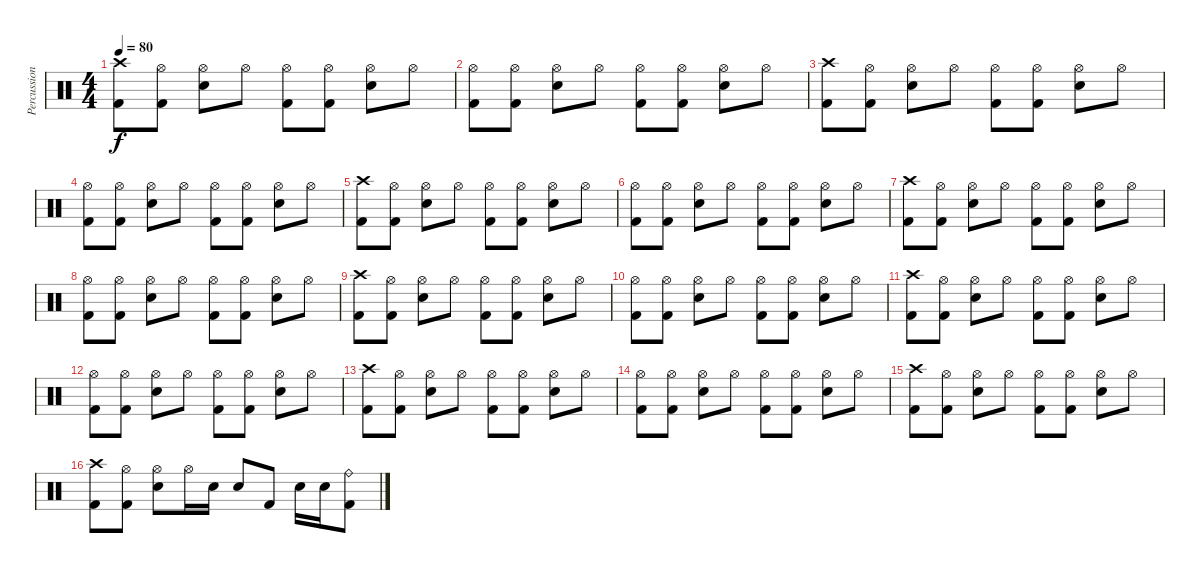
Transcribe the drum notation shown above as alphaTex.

\track ("Percussion" "Percussion") {instrument percussion}
\staff {score}
\articulation defaults
\ts (4 4)
\tempo 80
\clef neutral
\ks c
("Crash high (hit)" "Kick (hit) 2").8{dy f} ("Kick (hit) 2" "Hi-Hat (open)").8 ("Electric Snare (hit)" "Hi-Hat (open)").8 "Hi-Hat (open)".8 ("Hi-Hat (open)" "Kick (hit) 2").8 ("Hi-Hat (open)" "Kick (hit) 2").8 ("Electric Snare (hit)" "Hi-Hat (open)").8 "Hi-Hat (open)".8 |
("Hi-Hat (open)" "Kick (hit) 2").8 ("Kick (hit) 2" "Hi-Hat (open)").8 ("Electric Snare (hit)" "Hi-Hat (open)").8 "Hi-Hat (open)".8 ("Hi-Hat (open)" "Kick (hit) 2").8 ("Hi-Hat (open)" "Kick (hit) 2").8 ("Electric Snare (hit)" "Hi-Hat (open)").8 "Hi-Hat (open)".8 |
("Crash high (hit)" "Kick (hit) 2").8 ("Kick (hit) 2" "Hi-Hat (open)").8 ("Electric Snare (hit)" "Hi-Hat (open)").8 "Hi-Hat (open)".8 ("Hi-Hat (open)" "Kick (hit) 2").8 ("Hi-Hat (open)" "Kick (hit) 2").8 ("Electric Snare (hit)" "Hi-Hat (open)").8 "Hi-Hat (open)".8 |
("Hi-Hat (open)" "Kick (hit) 2").8 ("Kick (hit) 2" "Hi-Hat (open)").8 ("Electric Snare (hit)" "Hi-Hat (open)").8 "Hi-Hat (open)".8 ("Hi-Hat (open)" "Kick (hit) 2").8 ("Hi-Hat (open)" "Kick (hit) 2").8 ("Electric Snare (hit)" "Hi-Hat (open)").8 "Hi-Hat (open)".8 |
("Crash high (hit)" "Kick (hit) 2").8 ("Kick (hit) 2" "Hi-Hat (open)").8 ("Electric Snare (hit)" "Hi-Hat (open)").8 "Hi-Hat (open)".8 ("Hi-Hat (open)" "Kick (hit) 2").8 ("Hi-Hat (open)" "Kick (hit) 2").8 ("Electric Snare (hit)" "Hi-Hat (open)").8 "Hi-Hat (open)".8 |
("Hi-Hat (open)" "Kick (hit) 2").8 ("Kick (hit) 2" "Hi-Hat (open)").8 ("Electric Snare (hit)" "Hi-Hat (open)").8 "Hi-Hat (open)".8 ("Hi-Hat (open)" "Kick (hit) 2").8 ("Hi-Hat (open)" "Kick (hit) 2").8 ("Electric Snare (hit)" "Hi-Hat (open)").8 "Hi-Hat (open)".8 |
("Crash high (hit)" "Kick (hit) 2").8 ("Kick (hit) 2" "Hi-Hat (open)").8 ("Electric Snare (hit)" "Hi-Hat (open)").8 "Hi-Hat (open)".8 ("Hi-Hat (open)" "Kick (hit) 2").8 ("Hi-Hat (open)" "Kick (hit) 2").8 ("Electric Snare (hit)" "Hi-Hat (open)").8 "Hi-Hat (open)".8 |
("Hi-Hat (open)" "Kick (hit) 2").8 ("Kick (hit) 2" "Hi-Hat (open)").8 ("Electric Snare (hit)" "Hi-Hat (open)").8 "Hi-Hat (open)".8 ("Hi-Hat (open)" "Kick (hit) 2").8 ("Hi-Hat (open)" "Kick (hit) 2").8 ("Electric Snare (hit)" "Hi-Hat (open)").8 "Hi-Hat (open)".8 |
("Crash high (hit)" "Kick (hit) 2").8 ("Kick (hit) 2" "Hi-Hat (open)").8 ("Electric Snare (hit)" "Hi-Hat (open)").8 "Hi-Hat (open)".8 ("Hi-Hat (open)" "Kick (hit) 2").8 ("Hi-Hat (open)" "Kick (hit) 2").8 ("Electric Snare (hit)" "Hi-Hat (open)").8 "Hi-Hat (open)".8 |
("Hi-Hat (open)" "Kick (hit) 2").8 ("Kick (hit) 2" "Hi-Hat (open)").8 ("Electric Snare (hit)" "Hi-Hat (open)").8 "Hi-Hat (open)".8 ("Hi-Hat (open)" "Kick (hit) 2").8 ("Hi-Hat (open)" "Kick (hit) 2").8 ("Electric Snare (hit)" "Hi-Hat (open)").8 "Hi-Hat (open)".8 |
("Crash high (hit)" "Kick (hit) 2").8 ("Kick (hit) 2" "Hi-Hat (open)").8 ("Electric Snare (hit)" "Hi-Hat (open)").8 "Hi-Hat (open)".8 ("Hi-Hat (open)" "Kick (hit) 2").8 ("Hi-Hat (open)" "Kick (hit) 2").8 ("Electric Snare (hit)" "Hi-Hat (open)").8 "Hi-Hat (open)".8 |
("Hi-Hat (open)" "Kick (hit) 2").8 ("Kick (hit) 2" "Hi-Hat (open)").8 ("Electric Snare (hit)" "Hi-Hat (open)").8 "Hi-Hat (open)".8 ("Hi-Hat (open)" "Kick (hit) 2").8 ("Hi-Hat (open)" "Kick (hit) 2").8 ("Electric Snare (hit)" "Hi-Hat (open)").8 "Hi-Hat (open)".8 |
("Crash high (hit)" "Kick (hit) 2").8 ("Kick (hit) 2" "Hi-Hat (open)").8 ("Electric Snare (hit)" "Hi-Hat (open)").8 "Hi-Hat (open)".8 ("Hi-Hat (open)" "Kick (hit) 2").8 ("Hi-Hat (open)" "Kick (hit) 2").8 ("Electric Snare (hit)" "Hi-Hat (open)").8 "Hi-Hat (open)".8 |
("Hi-Hat (open)" "Kick (hit) 2").8 ("Kick (hit) 2" "Hi-Hat (open)").8 ("Electric Snare (hit)" "Hi-Hat (open)").8 "Hi-Hat (open)".8 ("Hi-Hat (open)" "Kick (hit) 2").8 ("Hi-Hat (open)" "Kick (hit) 2").8 ("Electric Snare (hit)" "Hi-Hat (open)").8 "Hi-Hat (open)".8 |
("Crash high (hit)" "Kick (hit) 2").8 ("Kick (hit) 2" "Hi-Hat (open)").8 ("Electric Snare (hit)" "Hi-Hat (open)").8 "Hi-Hat (open)".8 ("Hi-Hat (open)" "Kick (hit) 2").8 ("Hi-Hat (open)" "Kick (hit) 2").8 ("Electric Snare (hit)" "Hi-Hat (open)").8 "Hi-Hat (open)".8 |
("Kick (hit) 2" "Crash high (hit)").8 ("Kick (hit) 2" "Hi-Hat (open)").8 ("Electric Snare (hit)" "Hi-Hat (open)").8 "Hi-Hat (open)".16 "Electric Snare (hit)".16 "Electric Snare (hit)".8 "Kick (hit) 2".8 "Electric Snare (hit)".16 "Electric Snare (hit)".16 ("Kick (hit) 2" "Ride (bell)").8
